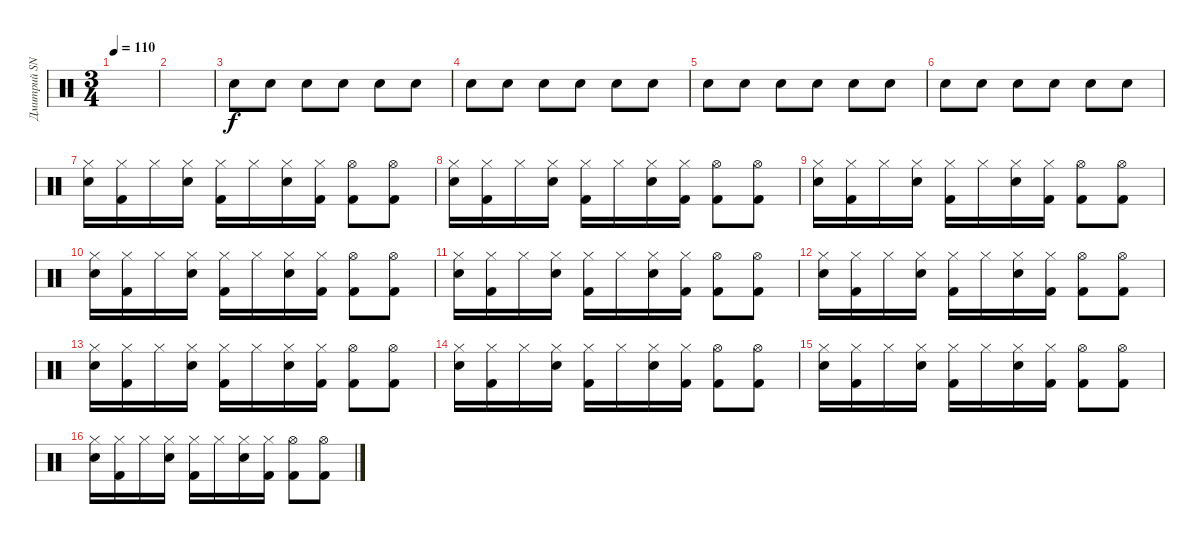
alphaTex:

\track ("Дмитрий SNAKE" "Дмитрий SN") {instrument percussion}
\staff {score}
\articulation defaults
\ts (3 4)
\tempo 110
\clef neutral
\ks c
|
|
"Snare (hit) 2".8 "Snare (hit) 2".8 "Snare (hit) 2".8 "Snare (hit) 2".8 "Snare (hit) 2".8 "Snare (hit) 2".8 |
"Snare (hit) 2".8 "Snare (hit) 2".8 "Snare (hit) 2".8 "Snare (hit) 2".8 "Snare (hit) 2".8 "Snare (hit) 2".8 |
"Snare (hit) 2".8 "Snare (hit) 2".8 "Snare (hit) 2".8 "Snare (hit) 2".8 "Snare (hit) 2".8 "Snare (hit) 2".8 |
"Snare (hit) 2".8 "Snare (hit) 2".8 "Snare (hit) 2".8 "Snare (hit) 2".8 "Snare (hit) 2".8 "Snare (hit) 2".8 |
("Hi-Hat (closed)" "Snare (hit) 2").16 ("Hi-Hat (closed)" "Kick (hit) 2").16 "Hi-Hat (closed)".16 ("Hi-Hat (closed)" "Snare (hit) 2").16 ("Hi-Hat (closed)" "Kick (hit) 2").16 "Hi-Hat (closed)".16 ("Hi-Hat (closed)" "Snare (hit) 2").16 ("Hi-Hat (closed)" "Kick (hit) 2").16 ("Hi-Hat (open)" "Kick (hit) 2").8 ("Hi-Hat (open)" "Kick (hit) 2").8 |
("Hi-Hat (closed)" "Snare (hit) 2").16 ("Hi-Hat (closed)" "Kick (hit) 2").16 "Hi-Hat (closed)".16 ("Hi-Hat (closed)" "Snare (hit) 2").16 ("Hi-Hat (closed)" "Kick (hit) 2").16 "Hi-Hat (closed)".16 ("Hi-Hat (closed)" "Snare (hit) 2").16 ("Hi-Hat (closed)" "Kick (hit) 2").16 ("Hi-Hat (open)" "Kick (hit) 2").8 ("Hi-Hat (open)" "Kick (hit) 2").8 |
("Hi-Hat (closed)" "Snare (hit) 2").16 ("Hi-Hat (closed)" "Kick (hit) 2").16 "Hi-Hat (closed)".16 ("Hi-Hat (closed)" "Snare (hit) 2").16 ("Hi-Hat (closed)" "Kick (hit) 2").16 "Hi-Hat (closed)".16 ("Hi-Hat (closed)" "Snare (hit) 2").16 ("Hi-Hat (closed)" "Kick (hit) 2").16 ("Hi-Hat (open)" "Kick (hit) 2").8 ("Hi-Hat (open)" "Kick (hit) 2").8 |
("Hi-Hat (closed)" "Snare (hit) 2").16 ("Hi-Hat (closed)" "Kick (hit) 2").16 "Hi-Hat (closed)".16 ("Hi-Hat (closed)" "Snare (hit) 2").16 ("Hi-Hat (closed)" "Kick (hit) 2").16 "Hi-Hat (closed)".16 ("Hi-Hat (closed)" "Snare (hit) 2").16 ("Hi-Hat (closed)" "Kick (hit) 2").16 ("Hi-Hat (open)" "Kick (hit) 2").8 ("Hi-Hat (open)" "Kick (hit) 2").8 |
("Hi-Hat (closed)" "Snare (hit) 2").16 ("Hi-Hat (closed)" "Kick (hit) 2").16 "Hi-Hat (closed)".16 ("Hi-Hat (closed)" "Snare (hit) 2").16 ("Hi-Hat (closed)" "Kick (hit) 2").16 "Hi-Hat (closed)".16 ("Hi-Hat (closed)" "Snare (hit) 2").16 ("Hi-Hat (closed)" "Kick (hit) 2").16 ("Hi-Hat (open)" "Kick (hit) 2").8 ("Hi-Hat (open)" "Kick (hit) 2").8 |
("Hi-Hat (closed)" "Snare (hit) 2").16 ("Hi-Hat (closed)" "Kick (hit) 2").16 "Hi-Hat (closed)".16 ("Hi-Hat (closed)" "Snare (hit) 2").16 ("Hi-Hat (closed)" "Kick (hit) 2").16 "Hi-Hat (closed)".16 ("Hi-Hat (closed)" "Snare (hit) 2").16 ("Hi-Hat (closed)" "Kick (hit) 2").16 ("Hi-Hat (open)" "Kick (hit) 2").8 ("Hi-Hat (open)" "Kick (hit) 2").8 |
("Hi-Hat (closed)" "Snare (hit) 2").16 ("Hi-Hat (closed)" "Kick (hit) 2").16 "Hi-Hat (closed)".16 ("Hi-Hat (closed)" "Snare (hit) 2").16 ("Hi-Hat (closed)" "Kick (hit) 2").16 "Hi-Hat (closed)".16 ("Hi-Hat (closed)" "Snare (hit) 2").16 ("Hi-Hat (closed)" "Kick (hit) 2").16 ("Hi-Hat (open)" "Kick (hit) 2").8 ("Hi-Hat (open)" "Kick (hit) 2").8 |
("Hi-Hat (closed)" "Snare (hit) 2").16 ("Hi-Hat (closed)" "Kick (hit) 2").16 "Hi-Hat (closed)".16 ("Hi-Hat (closed)" "Snare (hit) 2").16 ("Hi-Hat (closed)" "Kick (hit) 2").16 "Hi-Hat (closed)".16 ("Hi-Hat (closed)" "Snare (hit) 2").16 ("Hi-Hat (closed)" "Kick (hit) 2").16 ("Hi-Hat (open)" "Kick (hit) 2").8 ("Hi-Hat (open)" "Kick (hit) 2").8 |
("Hi-Hat (closed)" "Snare (hit) 2").16 ("Hi-Hat (closed)" "Kick (hit) 2").16 "Hi-Hat (closed)".16 ("Hi-Hat (closed)" "Snare (hit) 2").16 ("Hi-Hat (closed)" "Kick (hit) 2").16 "Hi-Hat (closed)".16 ("Hi-Hat (closed)" "Snare (hit) 2").16 ("Hi-Hat (closed)" "Kick (hit) 2").16 ("Hi-Hat (open)" "Kick (hit) 2").8 ("Hi-Hat (open)" "Kick (hit) 2").8 |
("Hi-Hat (closed)" "Snare (hit) 2").16 ("Hi-Hat (closed)" "Kick (hit) 2").16 "Hi-Hat (closed)".16 ("Hi-Hat (closed)" "Snare (hit) 2").16 ("Hi-Hat (closed)" "Kick (hit) 2").16 "Hi-Hat (closed)".16 ("Hi-Hat (closed)" "Snare (hit) 2").16 ("Hi-Hat (closed)" "Kick (hit) 2").16 ("Hi-Hat (open)" "Kick (hit) 2").8 ("Hi-Hat (open)" "Kick (hit) 2").8
